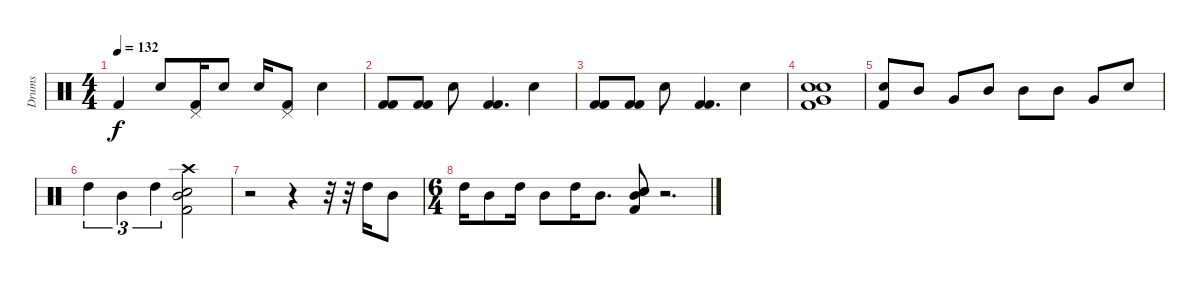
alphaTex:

\track ("Drums" "Drums") {instrument percussion}
\staff {score}
\articulation defaults
\ts (4 4)
\tempo 132
\clef neutral
\ks c "Kick (hit) 2".4{dy f} "Snare (hit) 2".8
("Pedal Hi-Hat (hit)" "Kick (hit) 2").16 "Snare (hit) 2".8 "Snare (hit) 2".16 ("Pedal Hi-Hat (hit)" "Kick (hit) 2").8 "Snare (hit) 2".4 |
("Kick (hit) 2" "Kick (hit) 2").8 ("Kick (hit) 2" "Kick (hit) 2").8 "Snare (hit) 2".8 ("Kick (hit) 2" "Kick (hit) 2").4{d} "Snare (hit) 2".4 |
("Kick (hit) 2" "Kick (hit) 2").8 ("Kick (hit) 2" "Kick (hit) 2").8 "Snare (hit) 2".8 ("Kick (hit) 2" "Kick (hit) 2").4{d} "Snare (hit) 2".4 |
("Very Low Tom (hit)" "Snare (hit) 2" "Electric Snare (hit)" "Kick (hit) 2").1 |
("Electric Snare (hit)" "Kick (hit) 2").8 "Mid Tom (hit)".8 "Very Low Tom (hit)".8 "Mid Tom (hit)".8 "Mid Tom (hit)".8 "Mid Tom (hit)".8 "Very Low Tom (hit)".8 "Snare (hit) 2".8 |
"High Tom (hit)".4{tu (3 2)} "Mid Tom (hit)".4{tu (3 2)} "High Tom (hit)".4{tu (3 2)} ("Snare (hit) 2" "Mid Tom (hit)" "Crash high (hit)" "Kick (hit) 2").2 |
r.2 r.4 r.32 r.32 "High Tom (hit)".16 "Mid Tom (hit)".8 |
\ts (6 4)
"High Tom (hit)".16 "Mid Tom (hit)".8 "High Tom (hit)".16 "Mid Tom (hit)".8 "High Tom (hit)".16 "Mid Tom (hit)".8{d} ("Snare (hit) 2" "Electric Snare (hit)" "Mid Tom (hit)" "Kick (hit) 2").8 r.2{d}
